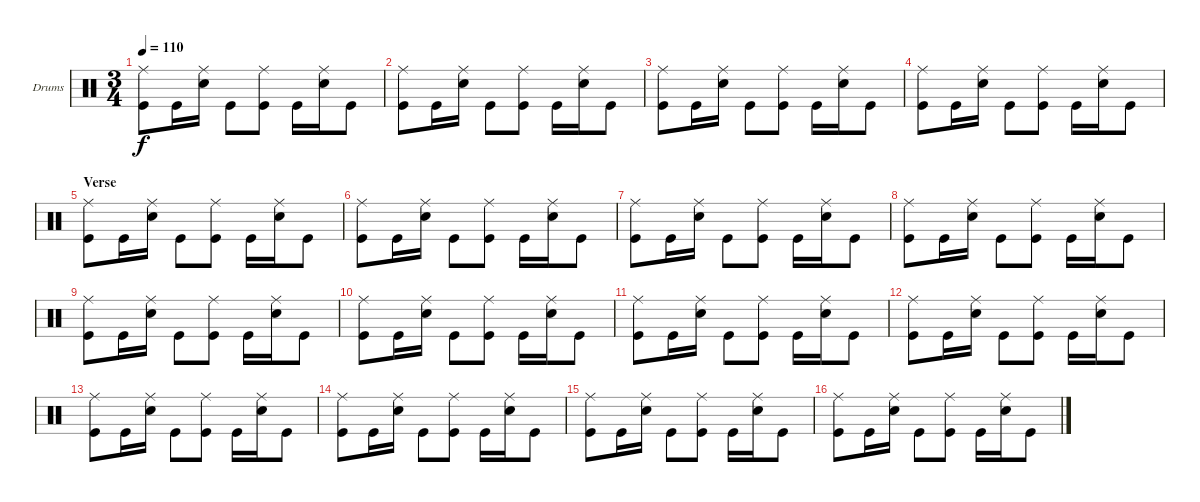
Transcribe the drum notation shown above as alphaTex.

\defaultSystemsLayout 4
\bracketExtendMode nobrackets
\firstSystemTrackNameOrientation horizontal
\otherSystemsTrackNameOrientation horizontal
\track ("Drumkit" "Drums") {instrument percussion}
\staff {score}
\articulation defaults
\ts (3 4)
\tempo 110
\clef neutral
\ks c
("Ride (middle)" "Kick (hit)").8{dy f} "Kick (hit)".16 ("Ride (middle)" "Snare (hit) 2").16 "Kick (hit)".8 ("Ride (middle)" "Kick (hit)").8 "Kick (hit)".16 ("Ride (middle)" "Snare (hit) 2").16 "Kick (hit)".8 |
("Ride (middle)" "Kick (hit)").8 "Kick (hit)".16 ("Ride (middle)" "Snare (hit) 2").16 "Kick (hit)".8 ("Ride (middle)" "Kick (hit)").8 "Kick (hit)".16 ("Ride (middle)" "Snare (hit) 2").16 "Kick (hit)".8 |
("Ride (middle)" "Kick (hit)").8 "Kick (hit)".16 ("Ride (middle)" "Snare (hit) 2").16 "Kick (hit)".8 ("Ride (middle)" "Kick (hit)").8 "Kick (hit)".16 ("Ride (middle)" "Snare (hit) 2").16 "Kick (hit)".8 |
("Ride (middle)" "Kick (hit)").8 "Kick (hit)".16 ("Ride (middle)" "Snare (hit) 2").16 "Kick (hit)".8 ("Ride (middle)" "Kick (hit)").8 "Kick (hit)".16 ("Ride (middle)" "Snare (hit) 2").16 "Kick (hit)".8 |
\section ("" "Verse")
("Ride (middle)" "Kick (hit)").8 "Kick (hit)".16 ("Ride (middle)" "Snare (hit) 2").16 "Kick (hit)".8 ("Ride (middle)" "Kick (hit)").8 "Kick (hit)".16 ("Ride (middle)" "Snare (hit) 2").16 "Kick (hit)".8 |
("Ride (middle)" "Kick (hit)").8 "Kick (hit)".16 ("Ride (middle)" "Snare (hit) 2").16 "Kick (hit)".8 ("Ride (middle)" "Kick (hit)").8 "Kick (hit)".16 ("Ride (middle)" "Snare (hit) 2").16 "Kick (hit)".8 |
("Ride (middle)" "Kick (hit)").8 "Kick (hit)".16 ("Ride (middle)" "Snare (hit) 2").16 "Kick (hit)".8 ("Ride (middle)" "Kick (hit)").8 "Kick (hit)".16 ("Ride (middle)" "Snare (hit) 2").16 "Kick (hit)".8 |
("Ride (middle)" "Kick (hit)").8 "Kick (hit)".16 ("Ride (middle)" "Snare (hit) 2").16 "Kick (hit)".8 ("Ride (middle)" "Kick (hit)").8 "Kick (hit)".16 ("Ride (middle)" "Snare (hit) 2").16 "Kick (hit)".8 |
("Ride (middle)" "Kick (hit)").8 "Kick (hit)".16 ("Ride (middle)" "Snare (hit) 2").16 "Kick (hit)".8 ("Ride (middle)" "Kick (hit)").8 "Kick (hit)".16 ("Ride (middle)" "Snare (hit) 2").16 "Kick (hit)".8 |
("Ride (middle)" "Kick (hit)").8 "Kick (hit)".16 ("Ride (middle)" "Snare (hit) 2").16 "Kick (hit)".8 ("Ride (middle)" "Kick (hit)").8 "Kick (hit)".16 ("Ride (middle)" "Snare (hit) 2").16 "Kick (hit)".8 |
("Ride (middle)" "Kick (hit)").8 "Kick (hit)".16 ("Ride (middle)" "Snare (hit) 2").16 "Kick (hit)".8 ("Ride (middle)" "Kick (hit)").8 "Kick (hit)".16 ("Ride (middle)" "Snare (hit) 2").16 "Kick (hit)".8 |
("Ride (middle)" "Kick (hit)").8 "Kick (hit)".16 ("Ride (middle)" "Snare (hit) 2").16 "Kick (hit)".8 ("Ride (middle)" "Kick (hit)").8 "Kick (hit)".16 ("Ride (middle)" "Snare (hit) 2").16 "Kick (hit)".8 |
("Ride (middle)" "Kick (hit)").8 "Kick (hit)".16 ("Ride (middle)" "Snare (hit) 2").16 "Kick (hit)".8 ("Ride (middle)" "Kick (hit)").8 "Kick (hit)".16 ("Ride (middle)" "Snare (hit) 2").16 "Kick (hit)".8 |
("Ride (middle)" "Kick (hit)").8 "Kick (hit)".16 ("Ride (middle)" "Snare (hit) 2").16 "Kick (hit)".8 ("Ride (middle)" "Kick (hit)").8 "Kick (hit)".16 ("Ride (middle)" "Snare (hit) 2").16 "Kick (hit)".8 |
("Ride (middle)" "Kick (hit)").8 "Kick (hit)".16 ("Ride (middle)" "Snare (hit) 2").16 "Kick (hit)".8 ("Ride (middle)" "Kick (hit)").8 "Kick (hit)".16 ("Ride (middle)" "Snare (hit) 2").16 "Kick (hit)".8 |
("Ride (middle)" "Kick (hit)").8 "Kick (hit)".16 ("Ride (middle)" "Snare (hit) 2").16 "Kick (hit)".8 ("Ride (middle)" "Kick (hit)").8 "Kick (hit)".16 ("Ride (middle)" "Snare (hit) 2").16 "Kick (hit)".8
